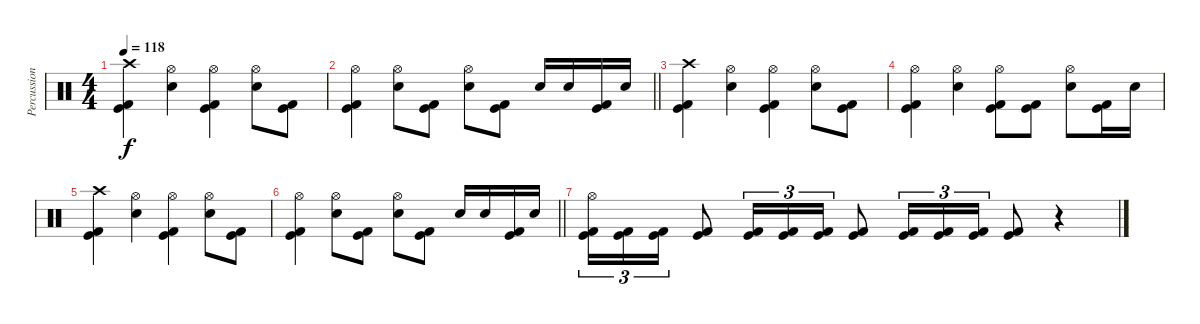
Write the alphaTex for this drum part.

\track ("Percussion" "Percussion") {instrument percussion}
\staff {score}
\articulation defaults
\ts (4 4)
\tempo 118
\clef neutral
\ks c
("Crash high (hit)" "Kick (hit)" "Kick (hit) 2").4{dy f} ("Hi-Hat (open)" "Electric Snare (hit)").4 ("Hi-Hat (open)" "Kick (hit)" "Kick (hit) 2").4 ("Hi-Hat (open)" "Electric Snare (hit)").8 ("Kick (hit)" "Kick (hit) 2").8 |
\barLineRight lightlight
("Hi-Hat (open)" "Kick (hit)" "Kick (hit) 2").4 ("Hi-Hat (open)" "Electric Snare (hit)").8 ("Kick (hit)" "Kick (hit) 2").8 ("Hi-Hat (open)" "Electric Snare (hit)").8 ("Kick (hit)" "Kick (hit) 2").8 "Electric Snare (hit)".16 "Electric Snare (hit)".16 ("Kick (hit)" "Kick (hit) 2").16 "Electric Snare (hit)".16 |
("Crash high (hit)" "Kick (hit)" "Kick (hit) 2").4 ("Hi-Hat (open)" "Electric Snare (hit)").4 ("Hi-Hat (open)" "Kick (hit)" "Kick (hit) 2").4 ("Hi-Hat (open)" "Electric Snare (hit)").8 ("Kick (hit)" "Kick (hit) 2").8 |
("Hi-Hat (open)" "Kick (hit)" "Kick (hit) 2").4 ("Hi-Hat (open)" "Electric Snare (hit)").4 ("Hi-Hat (open)" "Kick (hit)" "Kick (hit) 2").8 ("Kick (hit)" "Kick (hit) 2").8 ("Hi-Hat (open)" "Electric Snare (hit)").8 ("Kick (hit)" "Kick (hit) 2").16 "Electric Snare (hit)".16 |
("Crash high (hit)" "Kick (hit)" "Kick (hit) 2").4 ("Hi-Hat (open)" "Electric Snare (hit)").4 ("Hi-Hat (open)" "Kick (hit)" "Kick (hit) 2").4 ("Hi-Hat (open)" "Electric Snare (hit)").8 ("Kick (hit)" "Kick (hit) 2").8 |
\barLineRight lightlight
("Hi-Hat (open)" "Kick (hit)" "Kick (hit) 2").4 ("Hi-Hat (open)" "Electric Snare (hit)").8 ("Kick (hit)" "Kick (hit) 2").8 ("Hi-Hat (open)" "Electric Snare (hit)").8 ("Kick (hit)" "Kick (hit) 2").8 "Electric Snare (hit)".16 "Electric Snare (hit)".16 ("Kick (hit)" "Kick (hit) 2").16 "Electric Snare (hit)".16 |
\section ("" "")
("Hi-Hat (open)" "Kick (hit)" "Kick (hit) 2").16{tu (3 2)} ("Kick (hit)" "Kick (hit) 2").16{tu (3 2)} ("Kick (hit)" "Kick (hit) 2").16{tu (3 2)} ("Kick (hit)" "Kick (hit) 2").8 ("Kick (hit)" "Kick (hit) 2").16{tu (3 2)} ("Kick (hit)" "Kick (hit) 2").16{tu (3 2)} ("Kick (hit)" "Kick (hit) 2").16{tu (3 2)} ("Kick (hit)" "Kick (hit) 2").8 ("Kick (hit)" "Kick (hit) 2").16{tu (3 2)} ("Kick (hit)" "Kick (hit) 2").16{tu (3 2)} ("Kick (hit)" "Kick (hit) 2").16{tu (3 2)} ("Kick (hit)" "Kick (hit) 2").8 r.4
